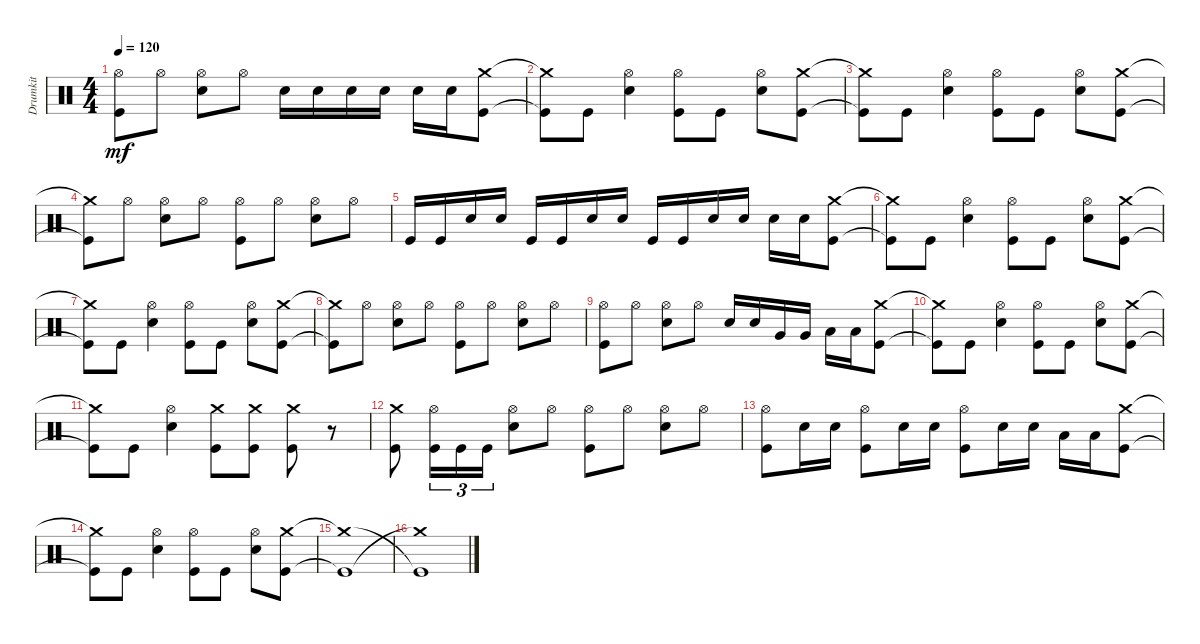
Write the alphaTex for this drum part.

\track ("Drumkit" "Drumkit") {instrument percussion}
\staff {score}
\articulation defaults
\ts (4 4)
\tempo 120
\clef neutral
\ks c
("Hi-Hat (open)" "Kick (hit)").8{dy mf} "Hi-Hat (open)".8 ("Hi-Hat (open)" "Snare (hit) 2").8 "Hi-Hat (open)".8 "Snare (hit) 2".16 "Snare (hit) 2".16 "Snare (hit) 2".16 "Snare (hit) 2".16 "Snare (hit) 2".16 "Snare (hit) 2".16 ("Kick (hit)" "Crash medium (hit)").8 |
("Kick (hit)"{t} "Crash medium (hit)"{t}).8 "Kick (hit)".8 ("Snare (hit) 2" "Hi-Hat (open)").4 ("Kick (hit)" "Hi-Hat (open)").8 "Kick (hit)".8 ("Snare (hit) 2" "Hi-Hat (open)").8 ("Kick (hit)" "Crash medium (hit)").8 |
("Kick (hit)"{t} "Crash medium (hit)"{t}).8 "Kick (hit)".8 ("Snare (hit) 2" "Hi-Hat (open)").4 ("Kick (hit)" "Hi-Hat (open)").8 "Kick (hit)".8 ("Snare (hit) 2" "Hi-Hat (open)").8 ("Kick (hit)" "Crash medium (hit)").8 |
("Kick (hit)"{t} "Crash medium (hit)"{t}).8 "Hi-Hat (open)".8 ("Snare (hit) 2" "Hi-Hat (open)").8 "Hi-Hat (open)".8 ("Hi-Hat (open)" "Kick (hit)").8 "Hi-Hat (open)".8 ("Hi-Hat (open)" "Snare (hit) 2").8 "Hi-Hat (open)".8 |
"Kick (hit)".16 "Kick (hit)".16 "Snare (hit) 2".16 "Snare (hit) 2".16 "Kick (hit)".16 "Kick (hit)".16 "Snare (hit) 2".16 "Snare (hit) 2".16 "Kick (hit)".16 "Kick (hit)".16 "Snare (hit) 2".16 "Snare (hit) 2".16 "Snare (hit) 2".16 "Snare (hit) 2".16 ("Kick (hit)" "Crash medium (hit)").8 |
("Kick (hit)"{t} "Crash medium (hit)"{t}).8 "Kick (hit)".8 ("Snare (hit) 2" "Hi-Hat (open)").4 ("Kick (hit)" "Hi-Hat (open)").8 "Kick (hit)".8 ("Snare (hit) 2" "Hi-Hat (open)").8 ("Kick (hit)" "Crash medium (hit)").8 |
("Kick (hit)"{t} "Crash medium (hit)"{t}).8 "Kick (hit)".8 ("Snare (hit) 2" "Hi-Hat (open)").4 ("Kick (hit)" "Hi-Hat (open)").8 "Kick (hit)".8 ("Snare (hit) 2" "Hi-Hat (open)").8 ("Kick (hit)" "Crash medium (hit)").8 |
("Kick (hit)"{t} "Crash medium (hit)"{t}).8 "Hi-Hat (open)".8 ("Snare (hit) 2" "Hi-Hat (open)").8 "Hi-Hat (open)".8 ("Hi-Hat (open)" "Kick (hit)").8 "Hi-Hat (open)".8 ("Hi-Hat (open)" "Snare (hit) 2").8 "Hi-Hat (open)".8 |
("Hi-Hat (open)" "Kick (hit)").8 "Hi-Hat (open)".8 ("Hi-Hat (open)" "Snare (hit) 2").8 "Hi-Hat (open)".8 "Snare (hit) 2".16 "Snare (hit) 2".16 "Very Low Tom (hit)".16 "Very Low Tom (hit)".16 "Low Floor Tom (hit)".16 "Low Floor Tom (hit)".16 ("Kick (hit)" "Crash medium (hit)").8 |
("Kick (hit)"{t} "Crash medium (hit)"{t}).8 "Kick (hit)".8 ("Snare (hit) 2" "Hi-Hat (open)").4 ("Kick (hit)" "Hi-Hat (open)").8 "Kick (hit)".8 ("Snare (hit) 2" "Hi-Hat (open)").8 ("Kick (hit)" "Crash medium (hit)").8 |
("Kick (hit)"{t} "Crash medium (hit)"{t}).8 "Kick (hit)".8 ("Snare (hit) 2" "Hi-Hat (open)").4 ("Kick (hit)" "Crash medium (hit)").8 ("Kick (hit)" "Crash medium (hit)").8 ("Kick (hit)" "Crash medium (hit)").8 r.8 |
("Kick (hit)" "Crash medium (hit)").8 ("Kick (hit)" "Hi-Hat (open)").16{tu (3 2)} "Kick (hit)".16{tu (3 2)} "Kick (hit)".16{tu (3 2)} ("Snare (hit) 2" "Hi-Hat (open)").8 "Hi-Hat (open)".8 ("Hi-Hat (open)" "Kick (hit)").8 "Hi-Hat (open)".8 ("Hi-Hat (open)" "Snare (hit) 2").8 "Hi-Hat (open)".8 |
("Hi-Hat (open)" "Kick (hit)").8 "Snare (hit) 2".16 "Snare (hit) 2".16 ("Hi-Hat (open)" "Kick (hit)").8 "Snare (hit) 2".16 "Snare (hit) 2".16 ("Kick (hit)" "Hi-Hat (open)").8 "Snare (hit) 2".16 "Snare (hit) 2".16 "Low Tom (hit)".16 "Low Tom (hit)".16 ("Kick (hit)" "Crash medium (hit)").8 |
("Kick (hit)"{t} "Crash medium (hit)"{t}).8 "Kick (hit)".8 ("Snare (hit) 2" "Hi-Hat (open)").4 ("Kick (hit)" "Hi-Hat (open)").8 "Kick (hit)".8 ("Snare (hit) 2" "Hi-Hat (open)").8 ("Kick (hit)" "Crash medium (hit)").8 |
("Kick (hit)"{t} "Crash medium (hit)"{t}).1 |
("Crash medium (hit)"{t} "Kick (hit)"{t}).1
